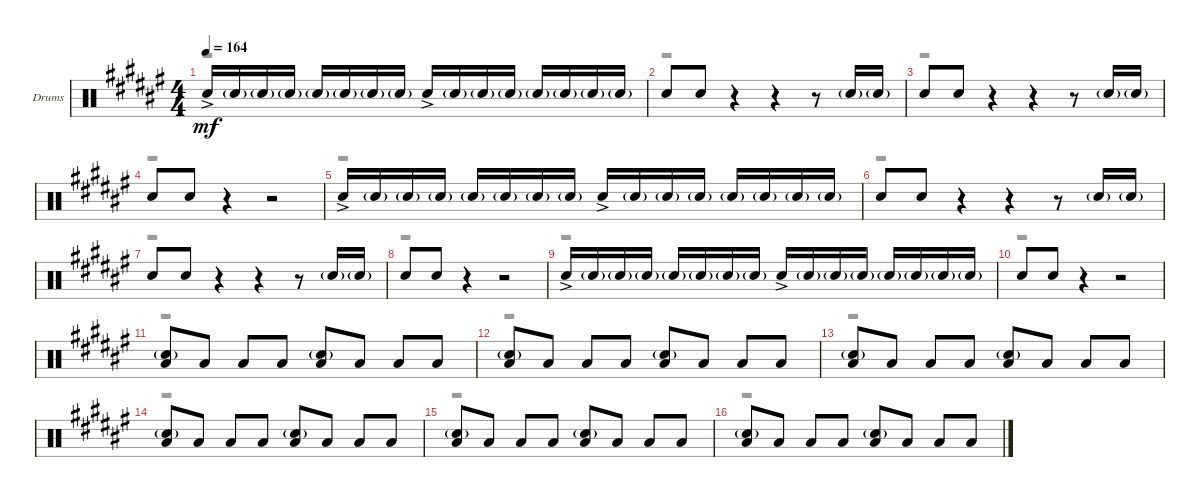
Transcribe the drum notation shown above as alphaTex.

\defaultSystemsLayout 4
\bracketExtendMode groupsimilarinstruments
\firstSystemTrackNameOrientation horizontal
\otherSystemsTrackNameOrientation horizontal
\track ("Drums" "Drums") {instrument percussion}
\staff {score}
\articulation defaults
\voice
\ts (4 4)
\tempo 164
\clef neutral
\ks f# "Snare (hit) 2"{ac}.16{dy mf} "Snare (hit) 2"{g}.16 "Snare (hit) 2"{g}.16 "Snare (hit) 2"{g}.16 "Snare (hit) 2"{g}.16 "Snare (hit) 2"{g}.16 "Snare (hit) 2"{g}.16 "Snare (hit) 2"{g}.16 "Snare (hit) 2"{ac}.16 "Snare (hit) 2"{g}.16 "Snare (hit) 2"{g}.16 "Snare (hit) 2"{g}.16 "Snare (hit) 2"{g}.16 "Snare (hit) 2"{g}.16 "Snare (hit) 2"{g}.16 "Snare (hit) 2"{g}.16
|
"Snare (hit) 2".8 "Snare (hit) 2".8 r.4 r.4 r.8 "Snare (hit) 2"{g}.16 "Snare (hit) 2"{g}.16 |
"Snare (hit) 2".8 "Snare (hit) 2".8 r.4 r.4 r.8 "Snare (hit) 2"{g}.16 "Snare (hit) 2"{g}.16 |
"Snare (hit) 2".8 "Snare (hit) 2".8 r.4 r.2 |
"Snare (hit) 2"{ac}.16 "Snare (hit) 2"{g}.16 "Snare (hit) 2"{g}.16 "Snare (hit) 2"{g}.16 "Snare (hit) 2"{g}.16 "Snare (hit) 2"{g}.16 "Snare (hit) 2"{g}.16 "Snare (hit) 2"{g}.16 "Snare (hit) 2"{ac}.16 "Snare (hit) 2"{g}.16 "Snare (hit) 2"{g}.16 "Snare (hit) 2"{g}.16 "Snare (hit) 2"{g}.16 "Snare (hit) 2"{g}.16 "Snare (hit) 2"{g}.16 "Snare (hit) 2"{g}.16 |
"Snare (hit) 2".8 "Snare (hit) 2".8 r.4 r.4 r.8 "Snare (hit) 2"{g}.16 "Snare (hit) 2"{g}.16 |
"Snare (hit) 2".8 "Snare (hit) 2".8 r.4 r.4 r.8 "Snare (hit) 2"{g}.16 "Snare (hit) 2"{g}.16 |
"Snare (hit) 2".8 "Snare (hit) 2".8 r.4 r.2 |
"Snare (hit) 2"{ac}.16 "Snare (hit) 2"{g}.16 "Snare (hit) 2"{g}.16 "Snare (hit) 2"{g}.16 "Snare (hit) 2"{g}.16 "Snare (hit) 2"{g}.16 "Snare (hit) 2"{g}.16 "Snare (hit) 2"{g}.16 "Snare (hit) 2"{ac}.16 "Snare (hit) 2"{g}.16 "Snare (hit) 2"{g}.16 "Snare (hit) 2"{g}.16 "Snare (hit) 2"{g}.16 "Snare (hit) 2"{g}.16 "Snare (hit) 2"{g}.16 "Snare (hit) 2"{g}.16 |
"Snare (hit) 2".8 "Snare (hit) 2".8 r.4 r.2 |
("Snare (hit) 2"{g} "Low Tom (hit)").8 "Low Tom (hit)".8 "Low Tom (hit)".8 "Low Tom (hit)".8 ("Snare (hit) 2"{g} "Low Tom (hit)").8 "Low Tom (hit)".8 "Low Tom (hit)".8 "Low Tom (hit)".8 |
("Snare (hit) 2"{g} "Low Tom (hit)").8 "Low Tom (hit)".8 "Low Tom (hit)".8 "Low Tom (hit)".8 ("Snare (hit) 2"{g} "Low Tom (hit)").8 "Low Tom (hit)".8 "Low Tom (hit)".8 "Low Tom (hit)".8 |
("Snare (hit) 2"{g} "Low Tom (hit)").8 "Low Tom (hit)".8 "Low Tom (hit)".8 "Low Tom (hit)".8 ("Snare (hit) 2"{g} "Low Tom (hit)").8 "Low Tom (hit)".8 "Low Tom (hit)".8 "Low Tom (hit)".8 |
("Snare (hit) 2"{g} "Low Tom (hit)").8 "Low Tom (hit)".8 "Low Tom (hit)".8 "Low Tom (hit)".8 ("Snare (hit) 2"{g} "Low Tom (hit)").8 "Low Tom (hit)".8 "Low Tom (hit)".8 "Low Tom (hit)".8 |
("Snare (hit) 2"{g} "Low Tom (hit)").8 "Low Tom (hit)".8 "Low Tom (hit)".8 "Low Tom (hit)".8 ("Snare (hit) 2"{g} "Low Tom (hit)").8 "Low Tom (hit)".8 "Low Tom (hit)".8 "Low Tom (hit)".8 |
("Snare (hit) 2"{g} "Low Tom (hit)").8 "Low Tom (hit)".8 "Low Tom (hit)".8 "Low Tom (hit)".8 ("Snare (hit) 2"{g} "Low Tom (hit)").8 "Low Tom (hit)".8 "Low Tom (hit)".8 "Low Tom (hit)".8
\voice
\clef neutral
\ottava regular
\simile none
\ks f#
r.1{dy mf} |
r.1 |
r.1 |
r.1 |
r.1 |
r.1 |
r.1 |
r.1 |
r.1 |
r.1 |
r.1 |
r.1 |
r.1 |
r.1 |
r.1 |
r.1
